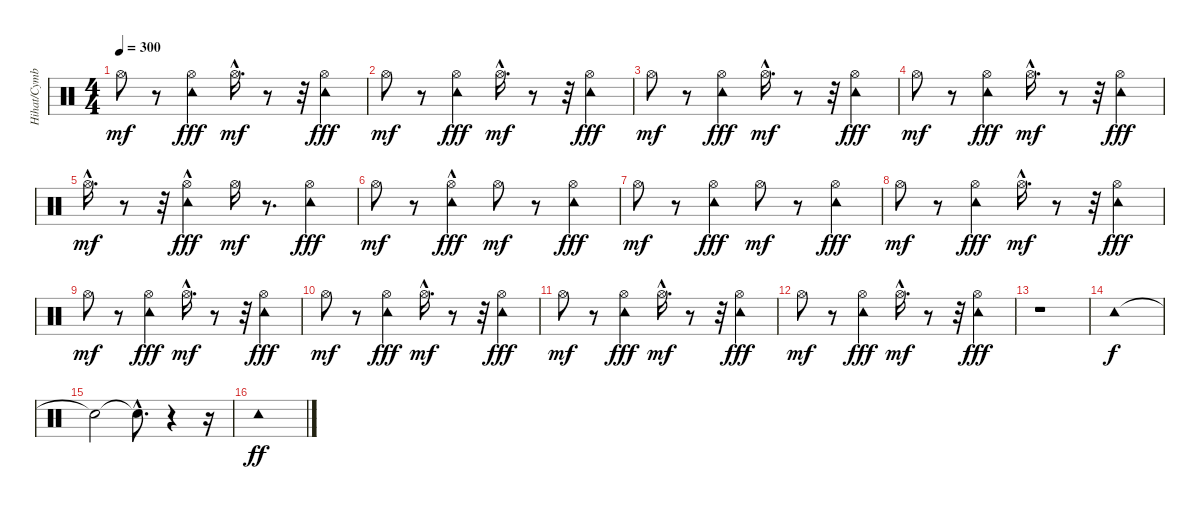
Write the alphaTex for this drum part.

\track ("Hihat/Cymbals/Tambourine" "Hihat/Cymb") {instrument percussion}
\staff {score}
\articulation defaults
\ts (4 4)
\tempo 300
\clef neutral
\ks c "Hi-Hat (open)".8{dy mf}
r.8 ("Hi-Hat (open)" "Tambourine (hit)").4{dy fff} "Hi-Hat (open)"{hac}.16{d dy mf} r.8 r.32 ("Hi-Hat (open)" "Tambourine (hit)").4{dy fff} |
"Hi-Hat (open)".8{dy mf} r.8 ("Hi-Hat (open)" "Tambourine (hit)").4{dy fff} "Hi-Hat (open)"{hac}.16{d dy mf} r.8 r.32 ("Hi-Hat (open)" "Tambourine (hit)").4{dy fff} |
"Hi-Hat (open)".8{dy mf} r.8 ("Hi-Hat (open)" "Tambourine (hit)").4{dy fff} "Hi-Hat (open)"{hac}.16{d dy mf} r.8 r.32 ("Hi-Hat (open)" "Tambourine (hit)").4{dy fff} |
"Hi-Hat (open)".8{dy mf} r.8 ("Hi-Hat (open)" "Tambourine (hit)").4{dy fff} "Hi-Hat (open)"{hac}.16{d dy mf} r.8 r.32 ("Hi-Hat (open)" "Tambourine (hit)").4{dy fff} |
"Hi-Hat (open)"{hac}.16{d dy mf} r.8 r.32 ("Hi-Hat (open)"{hac} "Tambourine (hit)").4{dy fff} "Hi-Hat (open)".16{dy mf} r.8{d} ("Hi-Hat (open)" "Tambourine (hit)").4{dy fff} |
"Hi-Hat (open)".8{dy mf} r.8 ("Hi-Hat (open)"{hac} "Tambourine (hit)").4{dy fff} "Hi-Hat (open)".8{dy mf} r.8 ("Hi-Hat (open)" "Tambourine (hit)").4{dy fff} |
"Hi-Hat (open)".8{dy mf} r.8 ("Hi-Hat (open)" "Tambourine (hit)").4{dy fff} "Hi-Hat (open)".8{dy mf} r.8 ("Hi-Hat (open)" "Tambourine (hit)").4{dy fff} |
"Hi-Hat (open)".8{dy mf} r.8 ("Hi-Hat (open)" "Tambourine (hit)").4{dy fff} "Hi-Hat (open)"{hac}.16{d dy mf} r.8 r.32 ("Hi-Hat (open)" "Tambourine (hit)").4{dy fff} |
"Hi-Hat (open)".8{dy mf} r.8 ("Hi-Hat (open)" "Tambourine (hit)").4{dy fff} "Hi-Hat (open)"{hac}.16{d dy mf} r.8 r.32 ("Hi-Hat (open)" "Tambourine (hit)").4{dy fff} |
"Hi-Hat (open)".8{dy mf} r.8 ("Hi-Hat (open)" "Tambourine (hit)").4{dy fff} "Hi-Hat (open)"{hac}.16{d dy mf} r.8 r.32 ("Hi-Hat (open)" "Tambourine (hit)").4{dy fff} |
"Hi-Hat (open)".8{dy mf} r.8 ("Hi-Hat (open)" "Tambourine (hit)").4{dy fff} "Hi-Hat (open)"{hac}.16{d dy mf} r.8 r.32 ("Hi-Hat (open)" "Tambourine (hit)").4{dy fff} |
"Hi-Hat (open)".8{dy mf} r.8 ("Hi-Hat (open)" "Tambourine (hit)").4{dy fff} "Hi-Hat (open)"{hac}.16{d dy mf} r.8 r.32 ("Hi-Hat (open)" "Tambourine (hit)").4{dy fff} |
r.1 |
"Tambourine (hit)".1{dy f} |
"Snare (hit)"{t}.2 "Snare (hit)"{hac t}.8{d} r.4 r.16 |
"Tambourine (hit)".1{dy ff}
